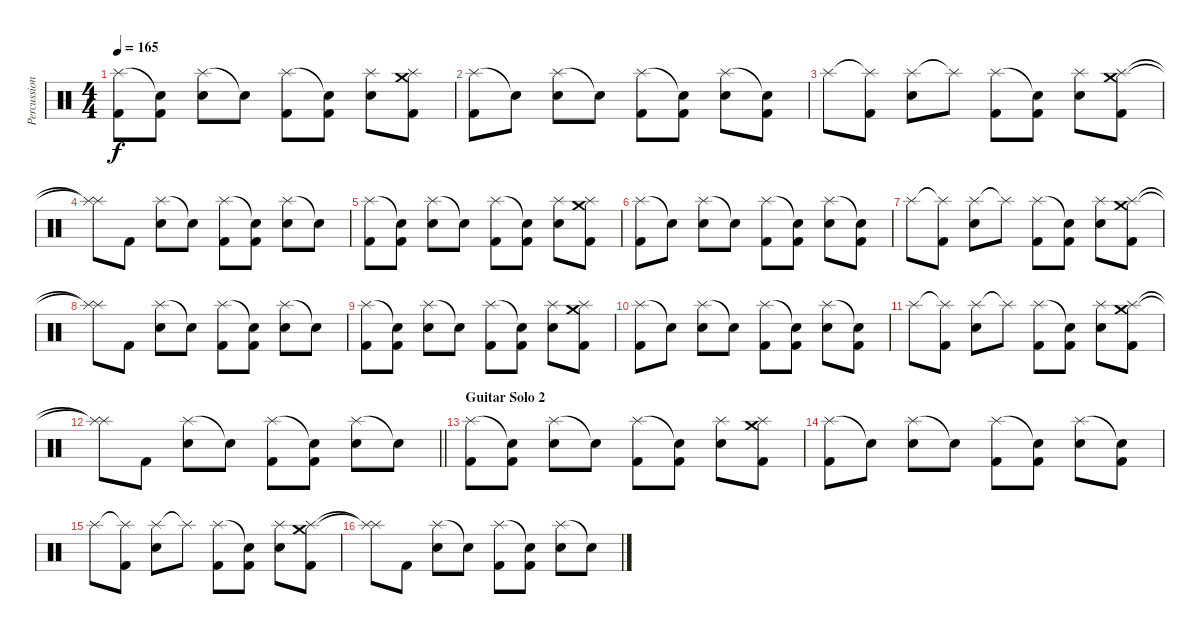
\track ("Percussion" "Percussion") {instrument percussion}
\staff {score}
\articulation defaults
\ts (4 4)
\tempo 165
\clef neutral
\ks c
("Splash (hit)" "Kick (hit) 2").8{dy f} ("Snare (hit)"{t} "Kick (hit) 2").8 ("Splash (hit)" "Electric Snare (hit)").8 "Snare (hit)"{t}.8 ("Splash (hit)" "Kick (hit) 2").8 ("Snare (hit)"{t} "Kick (hit) 2").8 ("Splash (hit)" "Electric Snare (hit)").8 ("Crash medium (hit)" "Splash (hit)" "Kick (hit) 2").8 |
("Splash (hit)" "Kick (hit) 2").8 "Snare (hit)"{t}.8 ("Splash (hit)" "Electric Snare (hit)").8 "Snare (hit)"{t}.8 ("Splash (hit)" "Kick (hit) 2").8 ("Snare (hit)"{t} "Kick (hit) 2").8 ("Splash (hit)" "Electric Snare (hit)").8 ("Snare (hit)"{t} "Kick (hit) 2").8 |
"Splash (hit)".8 ("Splash (hit)"{t} "Kick (hit) 2").8 ("Splash (hit)" "Electric Snare (hit)").8 "Splash (hit)"{t}.8 ("Splash (hit)" "Kick (hit) 2").8 ("Snare (hit)"{t} "Kick (hit) 2").8 ("Splash (hit)" "Electric Snare (hit)").8 ("Crash medium (hit)" "Splash (hit)" "Kick (hit) 2").8 |
("Splash (hit)"{t} "Splash (hit)"{t}).8 "Kick (hit) 2".8 ("Splash (hit)" "Electric Snare (hit)").8 "Snare (hit)"{t}.8 ("Splash (hit)" "Kick (hit) 2").8 ("Snare (hit)"{t} "Kick (hit) 2").8 ("Splash (hit)" "Electric Snare (hit)").8 "Snare (hit)"{t}.8 |
("Splash (hit)" "Kick (hit) 2").8 ("Snare (hit)"{t} "Kick (hit) 2").8 ("Splash (hit)" "Electric Snare (hit)").8 "Snare (hit)"{t}.8 ("Splash (hit)" "Kick (hit) 2").8 ("Snare (hit)"{t} "Kick (hit) 2").8 ("Splash (hit)" "Electric Snare (hit)").8 ("Crash medium (hit)" "Splash (hit)" "Kick (hit) 2").8 |
("Splash (hit)" "Kick (hit) 2").8 "Snare (hit)"{t}.8 ("Splash (hit)" "Electric Snare (hit)").8 "Snare (hit)"{t}.8 ("Splash (hit)" "Kick (hit) 2").8 ("Snare (hit)"{t} "Kick (hit) 2").8 ("Splash (hit)" "Electric Snare (hit)").8 ("Snare (hit)"{t} "Kick (hit) 2").8 |
"Splash (hit)".8 ("Splash (hit)"{t} "Kick (hit) 2").8 ("Splash (hit)" "Electric Snare (hit)").8 "Splash (hit)"{t}.8 ("Splash (hit)" "Kick (hit) 2").8 ("Snare (hit)"{t} "Kick (hit) 2").8 ("Splash (hit)" "Electric Snare (hit)").8 ("Crash medium (hit)" "Splash (hit)" "Kick (hit) 2").8 |
("Splash (hit)"{t} "Splash (hit)"{t}).8 "Kick (hit) 2".8 ("Splash (hit)" "Electric Snare (hit)").8 "Snare (hit)"{t}.8 ("Splash (hit)" "Kick (hit) 2").8 ("Snare (hit)"{t} "Kick (hit) 2").8 ("Splash (hit)" "Electric Snare (hit)").8 "Snare (hit)"{t}.8 |
("Splash (hit)" "Kick (hit) 2").8 ("Snare (hit)"{t} "Kick (hit) 2").8 ("Splash (hit)" "Electric Snare (hit)").8 "Snare (hit)"{t}.8 ("Splash (hit)" "Kick (hit) 2").8 ("Snare (hit)"{t} "Kick (hit) 2").8 ("Splash (hit)" "Electric Snare (hit)").8 ("Crash medium (hit)" "Splash (hit)" "Kick (hit) 2").8 |
("Splash (hit)" "Kick (hit) 2").8 "Snare (hit)"{t}.8 ("Splash (hit)" "Electric Snare (hit)").8 "Snare (hit)"{t}.8 ("Splash (hit)" "Kick (hit) 2").8 ("Snare (hit)"{t} "Kick (hit) 2").8 ("Splash (hit)" "Electric Snare (hit)").8 ("Snare (hit)"{t} "Kick (hit) 2").8 |
"Splash (hit)".8 ("Splash (hit)"{t} "Kick (hit) 2").8 ("Splash (hit)" "Electric Snare (hit)").8 "Splash (hit)"{t}.8 ("Splash (hit)" "Kick (hit) 2").8 ("Snare (hit)"{t} "Kick (hit) 2").8 ("Splash (hit)" "Electric Snare (hit)").8 ("Crash medium (hit)" "Splash (hit)" "Kick (hit) 2").8 |
\barLineRight lightlight
("Splash (hit)"{t} "Splash (hit)"{t}).8 "Kick (hit) 2".8 ("Splash (hit)" "Electric Snare (hit)").8 "Snare (hit)"{t}.8 ("Splash (hit)" "Kick (hit) 2").8 ("Snare (hit)"{t} "Kick (hit) 2").8 ("Splash (hit)" "Electric Snare (hit)").8 "Snare (hit)"{t}.8 |
\section ("" "Guitar Solo 2")
("Splash (hit)" "Kick (hit) 2").8 ("Snare (hit)"{t} "Kick (hit) 2").8 ("Splash (hit)" "Electric Snare (hit)").8 "Snare (hit)"{t}.8 ("Splash (hit)" "Kick (hit) 2").8 ("Snare (hit)"{t} "Kick (hit) 2").8 ("Splash (hit)" "Electric Snare (hit)").8 ("Crash medium (hit)" "Splash (hit)" "Kick (hit) 2").8 |
("Splash (hit)" "Kick (hit) 2").8 "Snare (hit)"{t}.8 ("Splash (hit)" "Electric Snare (hit)").8 "Snare (hit)"{t}.8 ("Splash (hit)" "Kick (hit) 2").8 ("Snare (hit)"{t} "Kick (hit) 2").8 ("Splash (hit)" "Electric Snare (hit)").8 ("Snare (hit)"{t} "Kick (hit) 2").8 |
"Splash (hit)".8 ("Splash (hit)"{t} "Kick (hit) 2").8 ("Splash (hit)" "Electric Snare (hit)").8 "Splash (hit)"{t}.8 ("Splash (hit)" "Kick (hit) 2").8 ("Snare (hit)"{t} "Kick (hit) 2").8 ("Splash (hit)" "Electric Snare (hit)").8 ("Crash medium (hit)" "Splash (hit)" "Kick (hit) 2").8 |
("Splash (hit)"{t} "Splash (hit)"{t}).8 "Kick (hit) 2".8 ("Splash (hit)" "Electric Snare (hit)").8 "Snare (hit)"{t}.8 ("Splash (hit)" "Kick (hit) 2").8 ("Snare (hit)"{t} "Kick (hit) 2").8 ("Splash (hit)" "Electric Snare (hit)").8 "Snare (hit)"{t}.8
